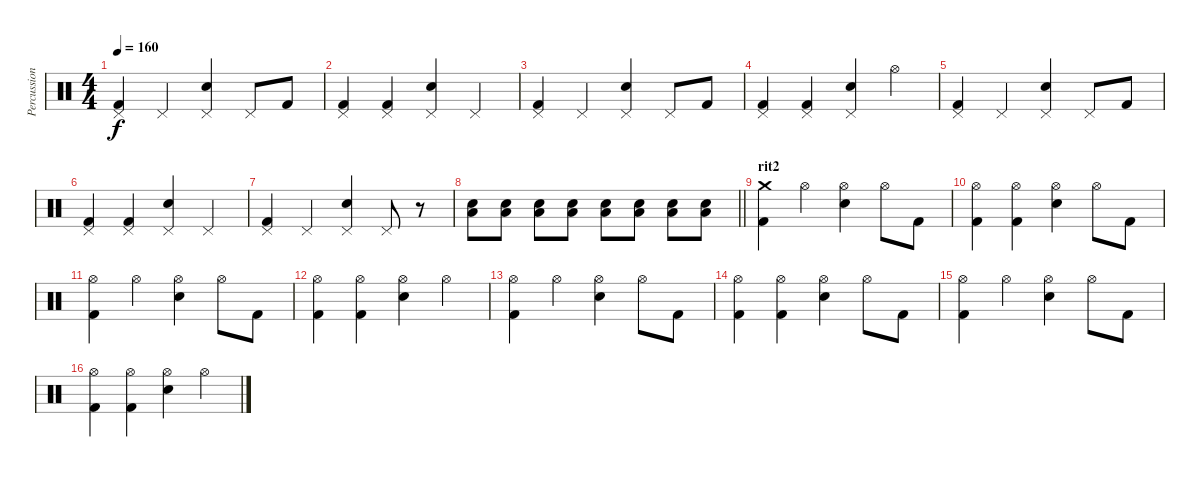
\track ("Percussioni" "Percussion") {instrument percussion}
\staff {score}
\articulation defaults
\ts (4 4)
\tempo 160
\clef neutral
\ks c
("Pedal Hi-Hat (hit)" "Kick (hit) 2").4{dy f} "Pedal Hi-Hat (hit)".4 ("Pedal Hi-Hat (hit)" "Snare (hit) 2").4 "Pedal Hi-Hat (hit)".8 "Kick (hit) 2".8 |
("Pedal Hi-Hat (hit)" "Kick (hit) 2").4 ("Pedal Hi-Hat (hit)" "Kick (hit) 2").4 ("Pedal Hi-Hat (hit)" "Snare (hit) 2").4 "Pedal Hi-Hat (hit)".4 |
("Pedal Hi-Hat (hit)" "Kick (hit) 2").4 "Pedal Hi-Hat (hit)".4 ("Pedal Hi-Hat (hit)" "Snare (hit) 2").4 "Pedal Hi-Hat (hit)".8 "Kick (hit) 2".8 |
("Pedal Hi-Hat (hit)" "Kick (hit) 2").4 ("Pedal Hi-Hat (hit)" "Kick (hit) 2").4 ("Pedal Hi-Hat (hit)" "Snare (hit) 2").4 "Hi-Hat (open)".4 |
("Pedal Hi-Hat (hit)" "Kick (hit) 2").4 "Pedal Hi-Hat (hit)".4 ("Pedal Hi-Hat (hit)" "Snare (hit) 2").4 "Pedal Hi-Hat (hit)".8 "Kick (hit) 2".8 |
("Pedal Hi-Hat (hit)" "Kick (hit) 2").4 ("Pedal Hi-Hat (hit)" "Kick (hit) 2").4 ("Pedal Hi-Hat (hit)" "Snare (hit) 2").4 "Pedal Hi-Hat (hit)".4 |
("Pedal Hi-Hat (hit)" "Kick (hit) 2").4 "Pedal Hi-Hat (hit)".4 ("Pedal Hi-Hat (hit)" "Snare (hit) 2").4 "Pedal Hi-Hat (hit)".8 r.8 |
\barLineRight lightlight
("Snare (hit) 2" "Low Floor Tom (hit)").8 ("Snare (hit) 2" "Low Floor Tom (hit)").8 ("Snare (hit) 2" "Low Floor Tom (hit)").8 ("Snare (hit) 2" "Low Floor Tom (hit)").8 ("Snare (hit) 2" "Low Floor Tom (hit)").8 ("Snare (hit) 2" "Low Floor Tom (hit)").8 ("Snare (hit) 2" "Low Floor Tom (hit)").8 ("Snare (hit) 2" "Low Floor Tom (hit)").8 |
\section ("" "rit2")
("Crash medium (hit)" "Kick (hit) 2").4 "Hi-Hat (open)".4 ("Hi-Hat (open)" "Snare (hit) 2").4 "Hi-Hat (open)".8 "Kick (hit) 2".8 |
("Hi-Hat (open)" "Kick (hit) 2").4 ("Hi-Hat (open)" "Kick (hit) 2").4 ("Hi-Hat (open)" "Snare (hit) 2").4 "Hi-Hat (open)".8 "Kick (hit) 2".8 |
("Hi-Hat (open)" "Kick (hit) 2").4 "Hi-Hat (open)".4 ("Hi-Hat (open)" "Snare (hit) 2").4 "Hi-Hat (open)".8 "Kick (hit) 2".8 |
("Hi-Hat (open)" "Kick (hit) 2").4 ("Hi-Hat (open)" "Kick (hit) 2").4 ("Hi-Hat (open)" "Snare (hit) 2").4 "Hi-Hat (open)".4 |
("Hi-Hat (open)" "Kick (hit) 2").4 "Hi-Hat (open)".4 ("Hi-Hat (open)" "Snare (hit) 2").4 "Hi-Hat (open)".8 "Kick (hit) 2".8 |
("Hi-Hat (open)" "Kick (hit) 2").4 ("Hi-Hat (open)" "Kick (hit) 2").4 ("Hi-Hat (open)" "Snare (hit) 2").4 "Hi-Hat (open)".8 "Kick (hit) 2".8 |
("Hi-Hat (open)" "Kick (hit) 2").4 "Hi-Hat (open)".4 ("Hi-Hat (open)" "Snare (hit) 2").4 "Hi-Hat (open)".8 "Kick (hit) 2".8 |
("Hi-Hat (open)" "Kick (hit) 2").4 ("Hi-Hat (open)" "Kick (hit) 2").4 ("Hi-Hat (open)" "Snare (hit) 2").4 "Hi-Hat (open)".4
